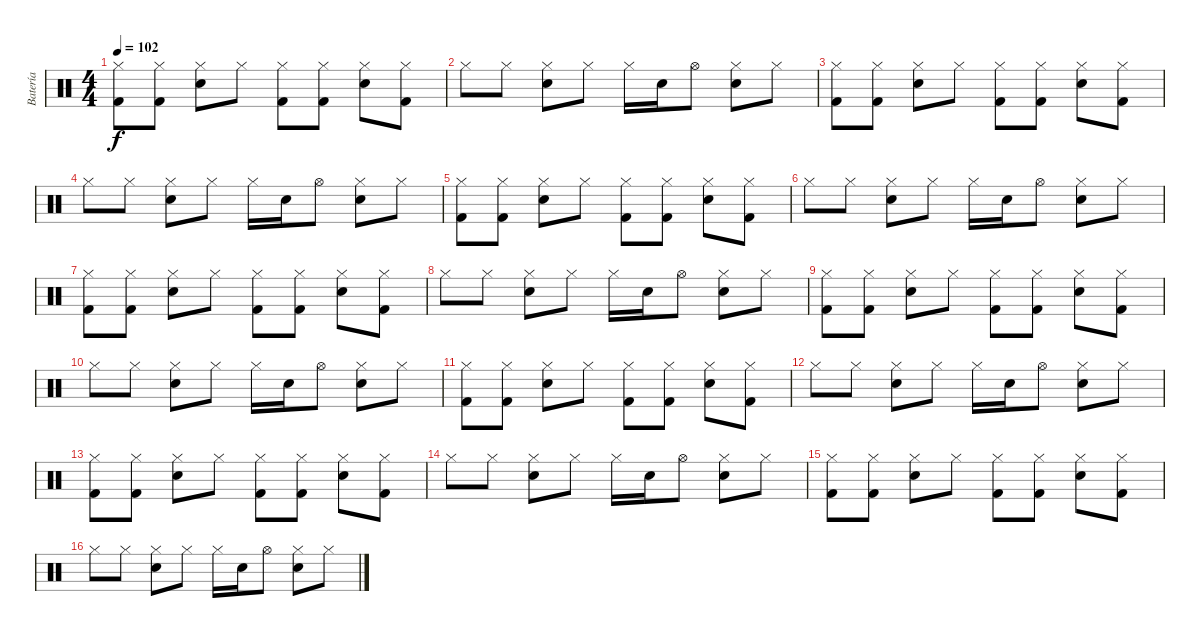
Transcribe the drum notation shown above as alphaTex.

\track ("Batería" "Batería") {instrument percussion}
\staff {score}
\articulation defaults
\ts (4 4)
\tempo 102
\clef neutral
\ks c
("Hi-Hat (closed)" "Kick (hit) 2").8{dy f} ("Hi-Hat (closed)" "Kick (hit) 2").8 ("Hi-Hat (closed)" "Snare (hit) 2").8 "Hi-Hat (closed)".8 ("Hi-Hat (closed)" "Kick (hit) 2").8 ("Hi-Hat (closed)" "Kick (hit) 2").8 ("Hi-Hat (closed)" "Snare (hit) 2").8 ("Hi-Hat (closed)" "Kick (hit) 2").8 |
"Hi-Hat (closed)".8 "Hi-Hat (closed)".8 ("Hi-Hat (closed)" "Snare (hit) 2").8 "Hi-Hat (closed)".8 "Hi-Hat (closed)".16 "Snare (hit) 2".16 "Hi-Hat (open)".8 ("Hi-Hat (closed)" "Snare (hit) 2").8 "Hi-Hat (closed)".8 |
("Hi-Hat (closed)" "Kick (hit) 2").8 ("Hi-Hat (closed)" "Kick (hit) 2").8 ("Hi-Hat (closed)" "Snare (hit) 2").8 "Hi-Hat (closed)".8 ("Hi-Hat (closed)" "Kick (hit) 2").8 ("Hi-Hat (closed)" "Kick (hit) 2").8 ("Hi-Hat (closed)" "Snare (hit) 2").8 ("Hi-Hat (closed)" "Kick (hit) 2").8 |
"Hi-Hat (closed)".8 "Hi-Hat (closed)".8 ("Hi-Hat (closed)" "Snare (hit) 2").8 "Hi-Hat (closed)".8 "Hi-Hat (closed)".16 "Snare (hit) 2".16 "Hi-Hat (open)".8 ("Hi-Hat (closed)" "Snare (hit) 2").8 "Hi-Hat (closed)".8 |
("Hi-Hat (closed)" "Kick (hit) 2").8 ("Hi-Hat (closed)" "Kick (hit) 2").8 ("Hi-Hat (closed)" "Snare (hit) 2").8 "Hi-Hat (closed)".8 ("Hi-Hat (closed)" "Kick (hit) 2").8 ("Hi-Hat (closed)" "Kick (hit) 2").8 ("Hi-Hat (closed)" "Snare (hit) 2").8 ("Hi-Hat (closed)" "Kick (hit) 2").8 |
"Hi-Hat (closed)".8 "Hi-Hat (closed)".8 ("Hi-Hat (closed)" "Snare (hit) 2").8 "Hi-Hat (closed)".8 "Hi-Hat (closed)".16 "Snare (hit) 2".16 "Hi-Hat (open)".8 ("Hi-Hat (closed)" "Snare (hit) 2").8 "Hi-Hat (closed)".8 |
("Hi-Hat (closed)" "Kick (hit) 2").8 ("Hi-Hat (closed)" "Kick (hit) 2").8 ("Hi-Hat (closed)" "Snare (hit) 2").8 "Hi-Hat (closed)".8 ("Hi-Hat (closed)" "Kick (hit) 2").8 ("Hi-Hat (closed)" "Kick (hit) 2").8 ("Hi-Hat (closed)" "Snare (hit) 2").8 ("Hi-Hat (closed)" "Kick (hit) 2").8 |
"Hi-Hat (closed)".8 "Hi-Hat (closed)".8 ("Hi-Hat (closed)" "Snare (hit) 2").8 "Hi-Hat (closed)".8 "Hi-Hat (closed)".16 "Snare (hit) 2".16 "Hi-Hat (open)".8 ("Hi-Hat (closed)" "Snare (hit) 2").8 "Hi-Hat (closed)".8 |
("Hi-Hat (closed)" "Kick (hit) 2").8 ("Hi-Hat (closed)" "Kick (hit) 2").8 ("Hi-Hat (closed)" "Snare (hit) 2").8 "Hi-Hat (closed)".8 ("Hi-Hat (closed)" "Kick (hit) 2").8 ("Hi-Hat (closed)" "Kick (hit) 2").8 ("Hi-Hat (closed)" "Snare (hit) 2").8 ("Hi-Hat (closed)" "Kick (hit) 2").8 |
"Hi-Hat (closed)".8 "Hi-Hat (closed)".8 ("Hi-Hat (closed)" "Snare (hit) 2").8 "Hi-Hat (closed)".8 "Hi-Hat (closed)".16 "Snare (hit) 2".16 "Hi-Hat (open)".8 ("Hi-Hat (closed)" "Snare (hit) 2").8 "Hi-Hat (closed)".8 |
("Hi-Hat (closed)" "Kick (hit) 2").8 ("Hi-Hat (closed)" "Kick (hit) 2").8 ("Hi-Hat (closed)" "Snare (hit) 2").8 "Hi-Hat (closed)".8 ("Hi-Hat (closed)" "Kick (hit) 2").8 ("Hi-Hat (closed)" "Kick (hit) 2").8 ("Hi-Hat (closed)" "Snare (hit) 2").8 ("Hi-Hat (closed)" "Kick (hit) 2").8 |
"Hi-Hat (closed)".8 "Hi-Hat (closed)".8 ("Hi-Hat (closed)" "Snare (hit) 2").8 "Hi-Hat (closed)".8 "Hi-Hat (closed)".16 "Snare (hit) 2".16 "Hi-Hat (open)".8 ("Hi-Hat (closed)" "Snare (hit) 2").8 "Hi-Hat (closed)".8 |
("Hi-Hat (closed)" "Kick (hit) 2").8 ("Hi-Hat (closed)" "Kick (hit) 2").8 ("Hi-Hat (closed)" "Snare (hit) 2").8 "Hi-Hat (closed)".8 ("Hi-Hat (closed)" "Kick (hit) 2").8 ("Hi-Hat (closed)" "Kick (hit) 2").8 ("Hi-Hat (closed)" "Snare (hit) 2").8 ("Hi-Hat (closed)" "Kick (hit) 2").8 |
"Hi-Hat (closed)".8 "Hi-Hat (closed)".8 ("Hi-Hat (closed)" "Snare (hit) 2").8 "Hi-Hat (closed)".8 "Hi-Hat (closed)".16 "Snare (hit) 2".16 "Hi-Hat (open)".8 ("Hi-Hat (closed)" "Snare (hit) 2").8 "Hi-Hat (closed)".8 |
("Hi-Hat (closed)" "Kick (hit) 2").8 ("Hi-Hat (closed)" "Kick (hit) 2").8 ("Hi-Hat (closed)" "Snare (hit) 2").8 "Hi-Hat (closed)".8 ("Hi-Hat (closed)" "Kick (hit) 2").8 ("Hi-Hat (closed)" "Kick (hit) 2").8 ("Hi-Hat (closed)" "Snare (hit) 2").8 ("Hi-Hat (closed)" "Kick (hit) 2").8 |
"Hi-Hat (closed)".8 "Hi-Hat (closed)".8 ("Hi-Hat (closed)" "Snare (hit) 2").8 "Hi-Hat (closed)".8 "Hi-Hat (closed)".16 "Snare (hit) 2".16 "Hi-Hat (open)".8 ("Hi-Hat (closed)" "Snare (hit) 2").8 "Hi-Hat (closed)".8
